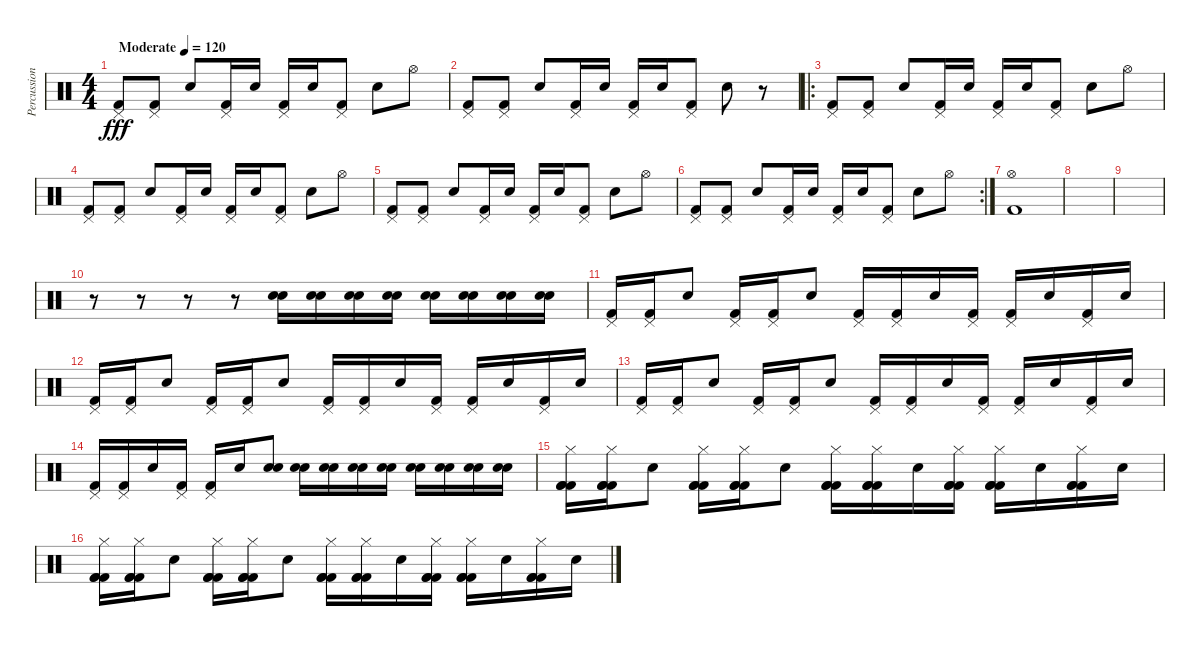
\track ("Percussion" "Percussion") {instrument percussion}
\staff {score}
\articulation defaults
\ts (4 4)
\tempo (120 "Moderate")
\clef neutral
\ks c
("Pedal Hi-Hat (hit)" "Kick (hit) 2").8{dy fff} ("Pedal Hi-Hat (hit)" "Kick (hit) 2").8 "Snare (hit) 2".8 ("Pedal Hi-Hat (hit)" "Kick (hit) 2").16 "Snare (hit) 2".16 ("Pedal Hi-Hat (hit)" "Kick (hit) 2").16 "Snare (hit) 2".16 ("Pedal Hi-Hat (hit)" "Kick (hit) 2").8 "Snare (hit) 2".8 "Hi-Hat (open)".8 |
("Pedal Hi-Hat (hit)" "Kick (hit) 2").8 ("Pedal Hi-Hat (hit)" "Kick (hit) 2").8 "Snare (hit) 2".8 ("Pedal Hi-Hat (hit)" "Kick (hit) 2").16 "Snare (hit) 2".16 ("Pedal Hi-Hat (hit)" "Kick (hit) 2").16 "Snare (hit) 2".16 ("Pedal Hi-Hat (hit)" "Kick (hit) 2").8 "Snare (hit) 2".8 r.8 |
\ro
("Pedal Hi-Hat (hit)" "Kick (hit) 2").8 ("Pedal Hi-Hat (hit)" "Kick (hit) 2").8 "Snare (hit) 2".8 ("Pedal Hi-Hat (hit)" "Kick (hit) 2").16 "Snare (hit) 2".16 ("Pedal Hi-Hat (hit)" "Kick (hit) 2").16 "Snare (hit) 2".16 ("Pedal Hi-Hat (hit)" "Kick (hit) 2").8 "Snare (hit) 2".8 "Hi-Hat (open)".8 |
("Pedal Hi-Hat (hit)" "Kick (hit) 2").8 ("Pedal Hi-Hat (hit)" "Kick (hit) 2").8 "Snare (hit) 2".8 ("Pedal Hi-Hat (hit)" "Kick (hit) 2").16 "Snare (hit) 2".16 ("Pedal Hi-Hat (hit)" "Kick (hit) 2").16 "Snare (hit) 2".16 ("Pedal Hi-Hat (hit)" "Kick (hit) 2").8 "Snare (hit) 2".8 "Hi-Hat (open)".8 |
("Pedal Hi-Hat (hit)" "Kick (hit) 2").8 ("Pedal Hi-Hat (hit)" "Kick (hit) 2").8 "Snare (hit) 2".8 ("Pedal Hi-Hat (hit)" "Kick (hit) 2").16 "Snare (hit) 2".16 ("Pedal Hi-Hat (hit)" "Kick (hit) 2").16 "Snare (hit) 2".16 ("Pedal Hi-Hat (hit)" "Kick (hit) 2").8 "Snare (hit) 2".8 "Hi-Hat (open)".8 |
\rc 2
("Pedal Hi-Hat (hit)" "Kick (hit) 2").8 ("Pedal Hi-Hat (hit)" "Kick (hit) 2").8 "Snare (hit) 2".8 ("Pedal Hi-Hat (hit)" "Kick (hit) 2").16 "Snare (hit) 2".16 ("Pedal Hi-Hat (hit)" "Kick (hit) 2").16 "Snare (hit) 2".16 ("Pedal Hi-Hat (hit)" "Kick (hit) 2").8 "Snare (hit) 2".8 "Hi-Hat (open)".8 |
("Hi-Hat (open)" "Kick (hit) 2").1 |
|
|
r.8 r.8 r.8 r.8 ("Snare (hit) 2" "Snare (hit) 2").16 ("Snare (hit) 2" "Snare (hit) 2").16 ("Snare (hit) 2" "Snare (hit) 2").16 ("Snare (hit) 2" "Snare (hit) 2").16 ("Snare (hit) 2" "Snare (hit) 2").16 ("Snare (hit) 2" "Snare (hit) 2").16 ("Snare (hit) 2" "Snare (hit) 2").16 ("Snare (hit) 2" "Snare (hit) 2").16 |
("Pedal Hi-Hat (hit)" "Kick (hit) 2").16 ("Pedal Hi-Hat (hit)" "Kick (hit) 2").16 "Snare (hit) 2".8 ("Pedal Hi-Hat (hit)" "Kick (hit) 2").16 ("Pedal Hi-Hat (hit)" "Kick (hit) 2").16 "Snare (hit) 2".8 ("Pedal Hi-Hat (hit)" "Kick (hit) 2").16 ("Pedal Hi-Hat (hit)" "Kick (hit) 2").16 "Snare (hit) 2".16 ("Pedal Hi-Hat (hit)" "Kick (hit) 2").16 ("Pedal Hi-Hat (hit)" "Kick (hit) 2").16 "Snare (hit) 2".16 ("Pedal Hi-Hat (hit)" "Kick (hit) 2").16 "Snare (hit) 2".16 |
("Pedal Hi-Hat (hit)" "Kick (hit) 2").16 ("Pedal Hi-Hat (hit)" "Kick (hit) 2").16 "Snare (hit) 2".8 ("Pedal Hi-Hat (hit)" "Kick (hit) 2").16 ("Pedal Hi-Hat (hit)" "Kick (hit) 2").16 "Snare (hit) 2".8 ("Pedal Hi-Hat (hit)" "Kick (hit) 2").16 ("Pedal Hi-Hat (hit)" "Kick (hit) 2").16 "Snare (hit) 2".16 ("Pedal Hi-Hat (hit)" "Kick (hit) 2").16 ("Pedal Hi-Hat (hit)" "Kick (hit) 2").16 "Snare (hit) 2".16 ("Pedal Hi-Hat (hit)" "Kick (hit) 2").16 "Snare (hit) 2".16 |
("Pedal Hi-Hat (hit)" "Kick (hit) 2").16 ("Pedal Hi-Hat (hit)" "Kick (hit) 2").16 "Snare (hit) 2".8 ("Pedal Hi-Hat (hit)" "Kick (hit) 2").16 ("Pedal Hi-Hat (hit)" "Kick (hit) 2").16 "Snare (hit) 2".8 ("Pedal Hi-Hat (hit)" "Kick (hit) 2").16 ("Pedal Hi-Hat (hit)" "Kick (hit) 2").16 "Snare (hit) 2".16 ("Pedal Hi-Hat (hit)" "Kick (hit) 2").16 ("Pedal Hi-Hat (hit)" "Kick (hit) 2").16 "Snare (hit) 2".16 ("Pedal Hi-Hat (hit)" "Kick (hit) 2").16 "Snare (hit) 2".16 |
("Pedal Hi-Hat (hit)" "Kick (hit) 2").16 ("Pedal Hi-Hat (hit)" "Kick (hit) 2").16 "Snare (hit) 2".16 ("Pedal Hi-Hat (hit)" "Kick (hit) 2").16 ("Pedal Hi-Hat (hit)" "Kick (hit) 2").16 "Snare (hit) 2".16 ("Snare (hit) 2" "Snare (hit) 2").8 ("Snare (hit) 2" "Snare (hit) 2").16 ("Snare (hit) 2" "Snare (hit) 2").16 ("Snare (hit) 2" "Snare (hit) 2").16 ("Snare (hit) 2" "Snare (hit) 2").16 ("Snare (hit) 2" "Snare (hit) 2").16 ("Snare (hit) 2" "Snare (hit) 2").16 ("Snare (hit) 2" "Snare (hit) 2").16 ("Snare (hit) 2" "Snare (hit) 2").16 |
("Kick (hit) 2" "Kick (hit) 2" "Hi-Hat (closed)" "Kick (hit) 2").16 ("Kick (hit) 2" "Kick (hit) 2" "Hi-Hat (closed)" "Kick (hit) 2").16 "Snare (hit) 2".8 ("Kick (hit) 2" "Kick (hit) 2" "Hi-Hat (closed)" "Kick (hit) 2").16 ("Kick (hit) 2" "Kick (hit) 2" "Hi-Hat (closed)" "Kick (hit) 2").16 "Snare (hit) 2".8 ("Kick (hit) 2" "Kick (hit) 2" "Hi-Hat (closed)" "Kick (hit) 2").16 ("Kick (hit) 2" "Kick (hit) 2" "Hi-Hat (closed)" "Kick (hit) 2").16 "Snare (hit) 2".16 ("Kick (hit) 2" "Kick (hit) 2" "Hi-Hat (closed)" "Kick (hit) 2").16 ("Kick (hit) 2" "Kick (hit) 2" "Hi-Hat (closed)" "Kick (hit) 2").16 "Snare (hit) 2".16 ("Kick (hit) 2" "Kick (hit) 2" "Hi-Hat (closed)" "Kick (hit) 2").16 "Snare (hit) 2".16 |
("Kick (hit) 2" "Kick (hit) 2" "Hi-Hat (closed)" "Kick (hit) 2").16 ("Kick (hit) 2" "Kick (hit) 2" "Hi-Hat (closed)" "Kick (hit) 2").16 "Snare (hit) 2".8 ("Kick (hit) 2" "Kick (hit) 2" "Hi-Hat (closed)" "Kick (hit) 2").16 ("Kick (hit) 2" "Kick (hit) 2" "Hi-Hat (closed)" "Kick (hit) 2").16 "Snare (hit) 2".8 ("Kick (hit) 2" "Kick (hit) 2" "Hi-Hat (closed)" "Kick (hit) 2").16 ("Kick (hit) 2" "Kick (hit) 2" "Hi-Hat (closed)" "Kick (hit) 2").16 "Snare (hit) 2".16 ("Kick (hit) 2" "Kick (hit) 2" "Hi-Hat (closed)" "Kick (hit) 2").16 ("Kick (hit) 2" "Kick (hit) 2" "Hi-Hat (closed)" "Kick (hit) 2").16 "Snare (hit) 2".16 ("Kick (hit) 2" "Kick (hit) 2" "Hi-Hat (closed)" "Kick (hit) 2").16 "Snare (hit) 2".16
